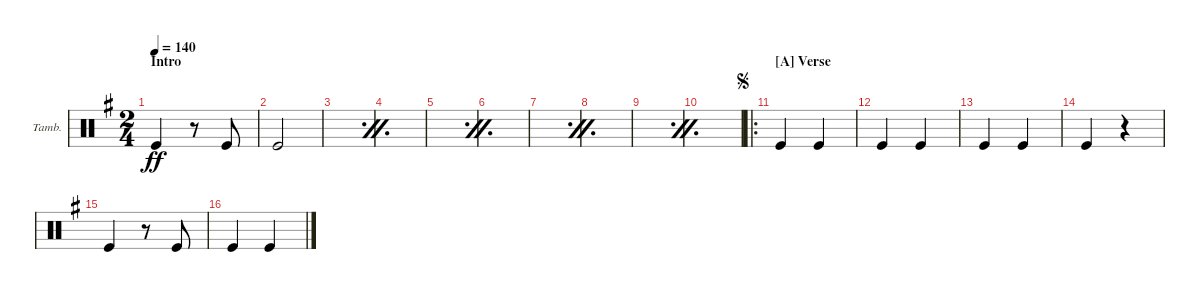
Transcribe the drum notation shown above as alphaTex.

\defaultSystemsLayout 4
\bracketExtendMode groupsimilarinstruments
\firstSystemTrackNameOrientation horizontal
\otherSystemsTrackNameOrientation horizontal
\track ("Tambourine" "Tamb.") {instrument percussion}
\staff {score}
\articulation defaults
\ts (2 4)
\section ("" "Intro")
\tempo 140
\clef neutral
\ks g "Kick (hit)".4{dy ff}
r.8 "Kick (hit)".8 |
"Kick (hit)".2 |
\simile firstofdouble
|
\simile secondofdouble
|
\simile firstofdouble
|
\simile secondofdouble
|
\simile firstofdouble
|
\simile secondofdouble
|
\simile firstofdouble
|
\simile secondofdouble
|
\ro
\section ("A" "Verse")
\jump segno
\simile none "Kick (hit)".4 "Kick (hit)".4
|
"Kick (hit)".4 "Kick (hit)".4 |
"Kick (hit)".4 "Kick (hit)".4 |
"Kick (hit)".4 r.4 |
"Kick (hit)".4 r.8 "Kick (hit)".8 |
"Kick (hit)".4 "Kick (hit)".4
